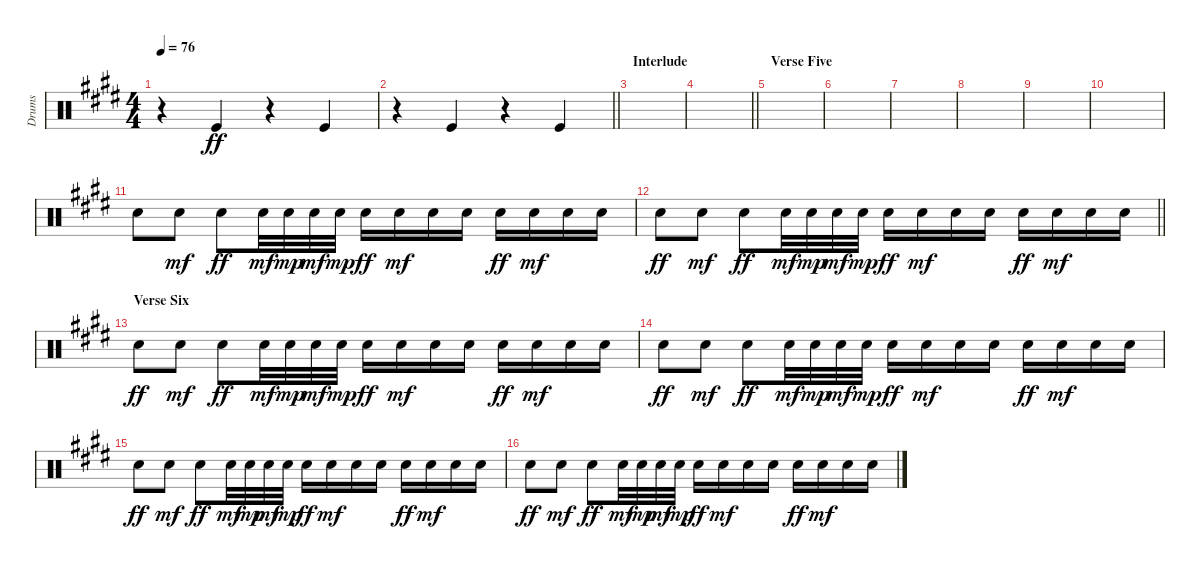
\track ("Drums" "Drums") {instrument percussion}
\staff {score}
\articulation defaults
\ts (4 4)
\tempo 76
\clef neutral
\ks e
r.4{dy ff} "Kick (hit)".4 r.4 "Kick (hit)".4 |
\barLineRight lightlight
r.4 "Kick (hit)".4 r.4 "Kick (hit)".4 |
\section ("" "Interlude")
|
\barLineRight lightlight
|
\section ("" "Verse Five")
|
|
|
|
|
|
"Snare (hit) 2".8{volume 8} "Snare (hit) 2".8{dy mf} "Snare (hit) 2".8{dy ff} "Snare (hit) 2".32{dy mf} "Snare (hit) 2".32{dy mp} "Snare (hit) 2".32{dy mf} "Snare (hit) 2".32{dy mp} "Snare (hit) 2".16{dy ff} "Snare (hit) 2".16{dy mf} "Snare (hit) 2".16 "Snare (hit) 2".16 "Snare (hit) 2".16{dy ff} "Snare (hit) 2".16{dy mf} "Snare (hit) 2".16 "Snare (hit) 2".16 |
\barLineRight lightlight "Snare (hit) 2".8{dy ff} "Snare (hit) 2".8{dy mf} "Snare (hit) 2".8{dy ff} "Snare (hit) 2".32{dy mf} "Snare (hit) 2".32{dy mp} "Snare (hit) 2".32{dy mf} "Snare (hit) 2".32{dy mp} "Snare (hit) 2".16{dy ff} "Snare (hit) 2".16{dy mf} "Snare (hit) 2".16 "Snare (hit) 2".16 "Snare (hit) 2".16{dy ff} "Snare (hit) 2".16{dy mf} "Snare (hit) 2".16 "Snare (hit) 2".16
|
\section ("" "Verse Six")
"Snare (hit) 2".8{dy ff} "Snare (hit) 2".8{dy mf} "Snare (hit) 2".8{dy ff} "Snare (hit) 2".32{dy mf} "Snare (hit) 2".32{dy mp} "Snare (hit) 2".32{dy mf} "Snare (hit) 2".32{dy mp} "Snare (hit) 2".16{dy ff} "Snare (hit) 2".16{dy mf} "Snare (hit) 2".16 "Snare (hit) 2".16 "Snare (hit) 2".16{dy ff} "Snare (hit) 2".16{dy mf} "Snare (hit) 2".16 "Snare (hit) 2".16 |
"Snare (hit) 2".8{dy ff} "Snare (hit) 2".8{dy mf} "Snare (hit) 2".8{dy ff} "Snare (hit) 2".32{dy mf} "Snare (hit) 2".32{dy mp} "Snare (hit) 2".32{dy mf} "Snare (hit) 2".32{dy mp} "Snare (hit) 2".16{dy ff} "Snare (hit) 2".16{dy mf} "Snare (hit) 2".16 "Snare (hit) 2".16 "Snare (hit) 2".16{dy ff} "Snare (hit) 2".16{dy mf} "Snare (hit) 2".16 "Snare (hit) 2".16 |
"Snare (hit) 2".8{dy ff} "Snare (hit) 2".8{dy mf} "Snare (hit) 2".8{dy ff} "Snare (hit) 2".32{dy mf} "Snare (hit) 2".32{dy mp} "Snare (hit) 2".32{dy mf} "Snare (hit) 2".32{dy mp} "Snare (hit) 2".16{dy ff} "Snare (hit) 2".16{dy mf} "Snare (hit) 2".16 "Snare (hit) 2".16 "Snare (hit) 2".16{dy ff} "Snare (hit) 2".16{dy mf} "Snare (hit) 2".16 "Snare (hit) 2".16 |
"Snare (hit) 2".8{dy ff} "Snare (hit) 2".8{dy mf} "Snare (hit) 2".8{dy ff} "Snare (hit) 2".32{dy mf} "Snare (hit) 2".32{dy mp} "Snare (hit) 2".32{dy mf} "Snare (hit) 2".32{dy mp} "Snare (hit) 2".16{dy ff} "Snare (hit) 2".16{dy mf} "Snare (hit) 2".16 "Snare (hit) 2".16 "Snare (hit) 2".16{dy ff} "Snare (hit) 2".16{dy mf} "Snare (hit) 2".16 "Snare (hit) 2".16
